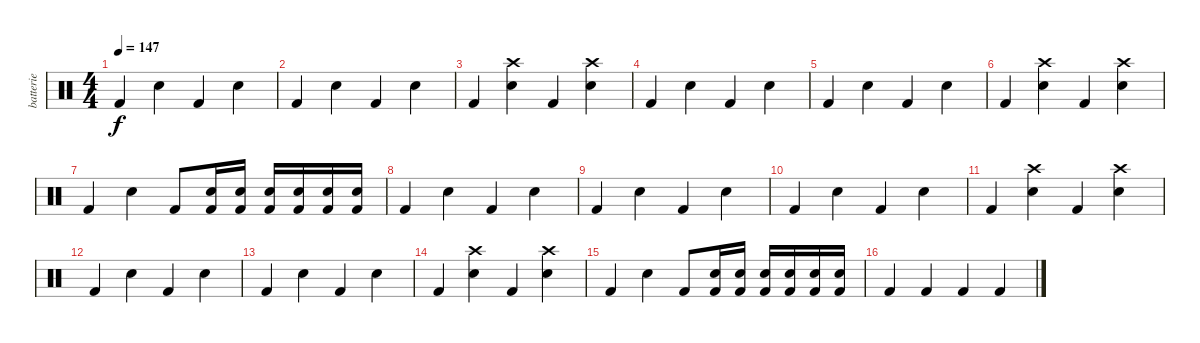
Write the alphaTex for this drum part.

\track ("batterie" "batterie") {instrument percussion}
\staff {score}
\articulation defaults
\ts (4 4)
\tempo 147
\clef neutral
\ks c "Kick (hit) 2".4{dy f} "Snare (hit) 2".4 "Kick (hit) 2".4 "Snare (hit) 2".4
|
"Kick (hit) 2".4 "Snare (hit) 2".4 "Kick (hit) 2".4 "Snare (hit) 2".4 |
"Kick (hit) 2".4 ("Snare (hit) 2" "Crash high (hit)").4 "Kick (hit) 2".4 ("Snare (hit) 2" "Crash high (hit)").4 |
"Kick (hit) 2".4 "Snare (hit) 2".4 "Kick (hit) 2".4 "Snare (hit) 2".4 |
"Kick (hit) 2".4 "Snare (hit) 2".4 "Kick (hit) 2".4 "Snare (hit) 2".4 |
"Kick (hit) 2".4 ("Snare (hit) 2" "Crash high (hit)").4 "Kick (hit) 2".4 ("Snare (hit) 2" "Crash high (hit)").4 |
"Kick (hit) 2".4 "Snare (hit) 2".4 "Kick (hit) 2".8 ("Snare (hit) 2" "Kick (hit) 2").16 ("Snare (hit) 2" "Kick (hit) 2").16 ("Snare (hit) 2" "Kick (hit) 2").16 ("Snare (hit) 2" "Kick (hit) 2").16 ("Snare (hit) 2" "Kick (hit) 2").16 ("Snare (hit) 2" "Kick (hit) 2").16 |
"Kick (hit) 2".4 "Snare (hit) 2".4 "Kick (hit) 2".4 "Snare (hit) 2".4 |
"Kick (hit) 2".4 "Snare (hit) 2".4 "Kick (hit) 2".4 "Snare (hit) 2".4 |
"Kick (hit) 2".4 "Snare (hit) 2".4 "Kick (hit) 2".4 "Snare (hit) 2".4 |
"Kick (hit) 2".4 ("Snare (hit) 2" "Crash high (hit)").4 "Kick (hit) 2".4 ("Snare (hit) 2" "Crash high (hit)").4 |
"Kick (hit) 2".4 "Snare (hit) 2".4 "Kick (hit) 2".4 "Snare (hit) 2".4 |
"Kick (hit) 2".4 "Snare (hit) 2".4 "Kick (hit) 2".4 "Snare (hit) 2".4 |
"Kick (hit) 2".4 ("Snare (hit) 2" "Crash high (hit)").4 "Kick (hit) 2".4 ("Snare (hit) 2" "Crash high (hit)").4 |
"Kick (hit) 2".4 "Snare (hit) 2".4 "Kick (hit) 2".8 ("Snare (hit) 2" "Kick (hit) 2").16 ("Snare (hit) 2" "Kick (hit) 2").16 ("Snare (hit) 2" "Kick (hit) 2").16 ("Snare (hit) 2" "Kick (hit) 2").16 ("Snare (hit) 2" "Kick (hit) 2").16 ("Snare (hit) 2" "Kick (hit) 2").16 |
"Kick (hit) 2".4 "Kick (hit) 2".4 "Kick (hit) 2".4 "Kick (hit) 2".4
